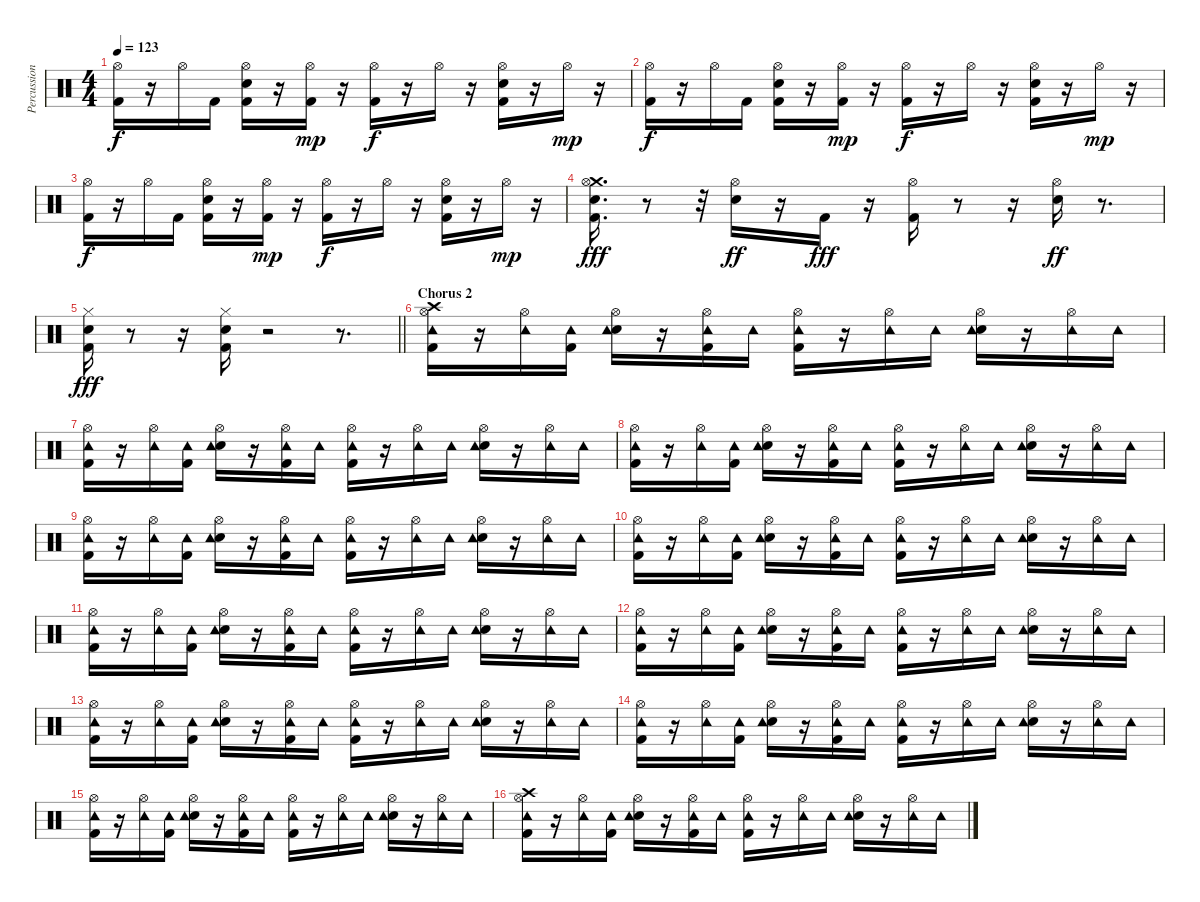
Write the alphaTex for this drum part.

\track ("Percussion: Liberty D'Vitto" "Percussion") {instrument percussion}
\staff {score}
\articulation defaults
\ts (4 4)
\tempo 123
\clef neutral
\ks c
("Hi-Hat (open)" "Kick (hit) 2").16{dy f} r.16 "Hi-Hat (open)".16 "Kick (hit) 2".16 ("Hi-Hat (open)" "Snare (hit) 2" "Kick (hit) 2").16 r.16 ("Hi-Hat (open)" "Kick (hit) 2").16{dy mp} r.16 ("Hi-Hat (open)" "Kick (hit) 2").16{dy f} r.16 "Hi-Hat (open)".16 r.16 ("Hi-Hat (open)" "Snare (hit) 2" "Kick (hit) 2").16 r.16 "Hi-Hat (open)".16{dy mp} r.16 |
("Hi-Hat (open)" "Kick (hit) 2").16{dy f} r.16 "Hi-Hat (open)".16 "Kick (hit) 2".16 ("Hi-Hat (open)" "Snare (hit) 2" "Kick (hit) 2").16 r.16 ("Hi-Hat (open)" "Kick (hit) 2").16{dy mp} r.16 ("Hi-Hat (open)" "Kick (hit) 2").16{dy f} r.16 "Hi-Hat (open)".16 r.16 ("Hi-Hat (open)" "Snare (hit) 2" "Kick (hit) 2").16 r.16 "Hi-Hat (open)".16{dy mp} r.16 |
("Hi-Hat (open)" "Kick (hit) 2").16{dy f} r.16 "Hi-Hat (open)".16 "Kick (hit) 2".16 ("Hi-Hat (open)" "Snare (hit) 2" "Kick (hit) 2").16 r.16 ("Hi-Hat (open)" "Kick (hit) 2").16{dy mp} r.16 ("Hi-Hat (open)" "Kick (hit) 2").16{dy f} r.16 "Hi-Hat (open)".16 r.16 ("Hi-Hat (open)" "Snare (hit) 2" "Kick (hit) 2").16 r.16 "Hi-Hat (open)".16{dy mp} r.16 |
("Crash medium (hit)" "Hi-Hat (open)" "Snare (hit) 2" "Kick (hit) 2").16{d dy fff} r.8 r.32 ("Snare (hit) 2" "Hi-Hat (open)").16{dy ff} r.16 "Kick (hit) 2".16{dy fff} r.16 ("Kick (hit) 2" "Hi-Hat (open)").16 r.8 r.16 ("Snare (hit) 2" "Hi-Hat (open)").16{dy ff} r.8{d} |
\barLineRight lightlight
("Hi-Hat (closed)" "Snare (hit) 2" "Kick (hit) 2").16{dy fff} r.8 r.16 ("Hi-Hat (closed)" "Snare (hit) 2" "Kick (hit) 2").16 r.2 r.8{d} |
\section ("" "Chorus 2")
("Crash high (hit)" "Hi-Hat (open)" "Tambourine (hit)" "Kick (hit) 2").16 r.16 ("Hi-Hat (open)" "Tambourine (hit)").16 ("Tambourine (hit)" "Kick (hit) 2").16 ("Hi-Hat (open)" "Snare (hit) 2" "Tambourine (hit)").16 r.16 ("Hi-Hat (open)" "Tambourine (hit)" "Kick (hit) 2").16 "Tambourine (hit)".16 ("Hi-Hat (open)" "Tambourine (hit)" "Kick (hit) 2").16 r.16 ("Hi-Hat (open)" "Tambourine (hit)").16 "Tambourine (hit)".16 ("Hi-Hat (open)" "Snare (hit) 2" "Tambourine (hit)").16 r.16 ("Hi-Hat (open)" "Tambourine (hit)").16 "Tambourine (hit)".16 |
("Hi-Hat (open)" "Tambourine (hit)" "Kick (hit) 2").16 r.16 ("Hi-Hat (open)" "Tambourine (hit)").16 ("Tambourine (hit)" "Kick (hit) 2").16 ("Hi-Hat (open)" "Snare (hit) 2" "Tambourine (hit)").16 r.16 ("Hi-Hat (open)" "Tambourine (hit)" "Kick (hit) 2").16 "Tambourine (hit)".16 ("Hi-Hat (open)" "Tambourine (hit)" "Kick (hit) 2").16 r.16 ("Hi-Hat (open)" "Tambourine (hit)").16 "Tambourine (hit)".16 ("Hi-Hat (open)" "Snare (hit) 2" "Tambourine (hit)").16 r.16 ("Hi-Hat (open)" "Tambourine (hit)").16 "Tambourine (hit)".16 |
("Hi-Hat (open)" "Tambourine (hit)" "Kick (hit) 2").16 r.16 ("Hi-Hat (open)" "Tambourine (hit)").16 ("Tambourine (hit)" "Kick (hit) 2").16 ("Hi-Hat (open)" "Snare (hit) 2" "Tambourine (hit)").16 r.16 ("Hi-Hat (open)" "Tambourine (hit)" "Kick (hit) 2").16 "Tambourine (hit)".16 ("Hi-Hat (open)" "Tambourine (hit)" "Kick (hit) 2").16 r.16 ("Hi-Hat (open)" "Tambourine (hit)").16 "Tambourine (hit)".16 ("Hi-Hat (open)" "Snare (hit) 2" "Tambourine (hit)").16 r.16 ("Hi-Hat (open)" "Tambourine (hit)").16 "Tambourine (hit)".16 |
("Hi-Hat (open)" "Tambourine (hit)" "Kick (hit) 2").16 r.16 ("Hi-Hat (open)" "Tambourine (hit)").16 ("Tambourine (hit)" "Kick (hit) 2").16 ("Hi-Hat (open)" "Snare (hit) 2" "Tambourine (hit)").16 r.16 ("Hi-Hat (open)" "Tambourine (hit)" "Kick (hit) 2").16 "Tambourine (hit)".16 ("Hi-Hat (open)" "Tambourine (hit)" "Kick (hit) 2").16 r.16 ("Hi-Hat (open)" "Tambourine (hit)").16 "Tambourine (hit)".16 ("Hi-Hat (open)" "Snare (hit) 2" "Tambourine (hit)").16 r.16 ("Hi-Hat (open)" "Tambourine (hit)").16 "Tambourine (hit)".16 |
("Hi-Hat (open)" "Tambourine (hit)" "Kick (hit) 2").16 r.16 ("Hi-Hat (open)" "Tambourine (hit)").16 ("Tambourine (hit)" "Kick (hit) 2").16 ("Hi-Hat (open)" "Snare (hit) 2" "Tambourine (hit)").16 r.16 ("Hi-Hat (open)" "Tambourine (hit)" "Kick (hit) 2").16 "Tambourine (hit)".16 ("Hi-Hat (open)" "Tambourine (hit)" "Kick (hit) 2").16 r.16 ("Hi-Hat (open)" "Tambourine (hit)").16 "Tambourine (hit)".16 ("Hi-Hat (open)" "Snare (hit) 2" "Tambourine (hit)").16 r.16 ("Hi-Hat (open)" "Tambourine (hit)").16 "Tambourine (hit)".16 |
("Hi-Hat (open)" "Tambourine (hit)" "Kick (hit) 2").16 r.16 ("Hi-Hat (open)" "Tambourine (hit)").16 ("Tambourine (hit)" "Kick (hit) 2").16 ("Hi-Hat (open)" "Snare (hit) 2" "Tambourine (hit)").16 r.16 ("Hi-Hat (open)" "Tambourine (hit)" "Kick (hit) 2").16 "Tambourine (hit)".16 ("Hi-Hat (open)" "Tambourine (hit)" "Kick (hit) 2").16 r.16 ("Hi-Hat (open)" "Tambourine (hit)").16 "Tambourine (hit)".16 ("Hi-Hat (open)" "Snare (hit) 2" "Tambourine (hit)").16 r.16 ("Hi-Hat (open)" "Tambourine (hit)").16 "Tambourine (hit)".16 |
("Hi-Hat (open)" "Tambourine (hit)" "Kick (hit) 2").16 r.16 ("Hi-Hat (open)" "Tambourine (hit)").16 ("Tambourine (hit)" "Kick (hit) 2").16 ("Hi-Hat (open)" "Snare (hit) 2" "Tambourine (hit)").16 r.16 ("Hi-Hat (open)" "Tambourine (hit)" "Kick (hit) 2").16 "Tambourine (hit)".16 ("Hi-Hat (open)" "Tambourine (hit)" "Kick (hit) 2").16 r.16 ("Hi-Hat (open)" "Tambourine (hit)").16 "Tambourine (hit)".16 ("Hi-Hat (open)" "Snare (hit) 2" "Tambourine (hit)").16 r.16 ("Hi-Hat (open)" "Tambourine (hit)").16 "Tambourine (hit)".16 |
("Hi-Hat (open)" "Tambourine (hit)" "Kick (hit) 2").16 r.16 ("Hi-Hat (open)" "Tambourine (hit)").16 ("Tambourine (hit)" "Kick (hit) 2").16 ("Hi-Hat (open)" "Snare (hit) 2" "Tambourine (hit)").16 r.16 ("Hi-Hat (open)" "Tambourine (hit)" "Kick (hit) 2").16 "Tambourine (hit)".16 ("Hi-Hat (open)" "Tambourine (hit)" "Kick (hit) 2").16 r.16 ("Hi-Hat (open)" "Tambourine (hit)").16 "Tambourine (hit)".16 ("Hi-Hat (open)" "Snare (hit) 2" "Tambourine (hit)").16 r.16 ("Hi-Hat (open)" "Tambourine (hit)").16 "Tambourine (hit)".16 |
("Hi-Hat (open)" "Tambourine (hit)" "Kick (hit) 2").16 r.16 ("Hi-Hat (open)" "Tambourine (hit)").16 ("Tambourine (hit)" "Kick (hit) 2").16 ("Hi-Hat (open)" "Snare (hit) 2" "Tambourine (hit)").16 r.16 ("Hi-Hat (open)" "Tambourine (hit)" "Kick (hit) 2").16 "Tambourine (hit)".16 ("Hi-Hat (open)" "Tambourine (hit)" "Kick (hit) 2").16 r.16 ("Hi-Hat (open)" "Tambourine (hit)").16 "Tambourine (hit)".16 ("Hi-Hat (open)" "Snare (hit) 2" "Tambourine (hit)").16 r.16 ("Hi-Hat (open)" "Tambourine (hit)").16 "Tambourine (hit)".16 |
("Hi-Hat (open)" "Tambourine (hit)" "Kick (hit) 2").16 r.16 ("Hi-Hat (open)" "Tambourine (hit)").16 ("Tambourine (hit)" "Kick (hit) 2").16 ("Hi-Hat (open)" "Snare (hit) 2" "Tambourine (hit)").16 r.16 ("Hi-Hat (open)" "Tambourine (hit)" "Kick (hit) 2").16 "Tambourine (hit)".16 ("Hi-Hat (open)" "Tambourine (hit)" "Kick (hit) 2").16 r.16 ("Hi-Hat (open)" "Tambourine (hit)").16 "Tambourine (hit)".16 ("Hi-Hat (open)" "Snare (hit) 2" "Tambourine (hit)").16 r.16 ("Hi-Hat (open)" "Tambourine (hit)").16 "Tambourine (hit)".16 |
("Crash high (hit)" "Hi-Hat (open)" "Tambourine (hit)" "Kick (hit) 2").16 r.16 ("Hi-Hat (open)" "Tambourine (hit)").16 ("Tambourine (hit)" "Kick (hit) 2").16 ("Hi-Hat (open)" "Snare (hit) 2" "Tambourine (hit)").16 r.16 ("Hi-Hat (open)" "Tambourine (hit)" "Kick (hit) 2").16 "Tambourine (hit)".16 ("Hi-Hat (open)" "Tambourine (hit)" "Kick (hit) 2").16 r.16 ("Hi-Hat (open)" "Tambourine (hit)").16 "Tambourine (hit)".16 ("Hi-Hat (open)" "Snare (hit) 2" "Tambourine (hit)").16 r.16 ("Hi-Hat (open)" "Tambourine (hit)").16 "Tambourine (hit)".16
